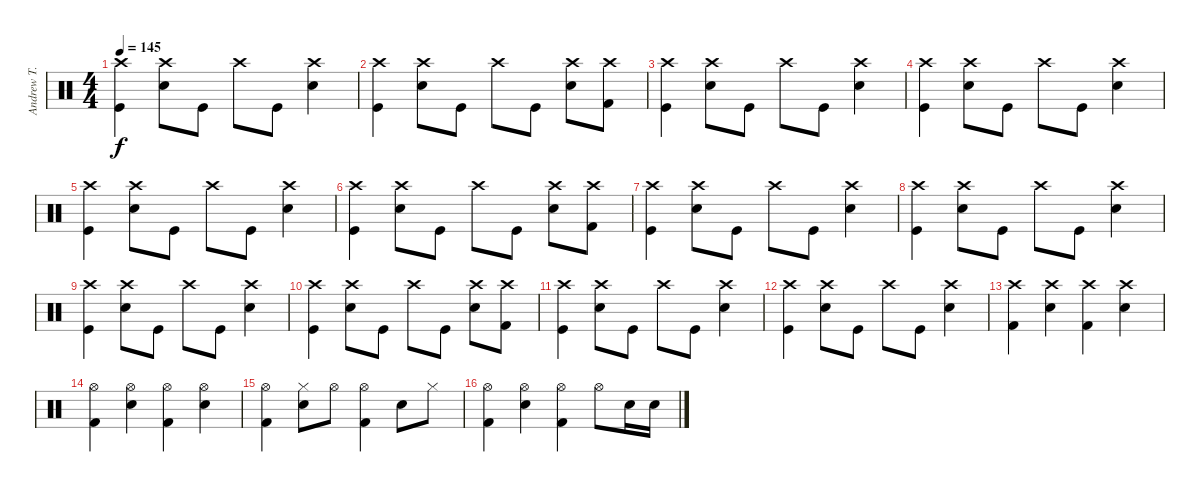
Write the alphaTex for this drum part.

\track ("Andrew T." "Andrew T.") {instrument percussion}
\staff {score}
\articulation defaults
\ts (4 4)
\tempo 145
\clef neutral
\ks c
("Crash high (hit)" "Kick (hit)").4{dy f} ("Crash high (hit)" "Snare (hit) 2").8 "Kick (hit)".8 "Crash high (hit)".8 "Kick (hit)".8 ("Crash high (hit)" "Snare (hit) 2").4 |
("Crash high (hit)" "Kick (hit)").4 ("Crash high (hit)" "Snare (hit) 2").8 "Kick (hit)".8 "Crash high (hit)".8 "Kick (hit)".8 ("Crash high (hit)" "Snare (hit) 2").8 ("Kick (hit) 2" "Crash high (hit)").8 |
("Crash high (hit)" "Kick (hit)").4 ("Crash high (hit)" "Snare (hit) 2").8 "Kick (hit)".8 "Crash high (hit)".8 "Kick (hit)".8 ("Crash high (hit)" "Snare (hit) 2").4 |
("Crash high (hit)" "Kick (hit)").4 ("Crash high (hit)" "Snare (hit) 2").8 "Kick (hit)".8 "Crash high (hit)".8 "Kick (hit)".8 ("Crash high (hit)" "Snare (hit) 2").4 |
("Crash high (hit)" "Kick (hit)").4 ("Crash high (hit)" "Snare (hit) 2").8 "Kick (hit)".8 "Crash high (hit)".8 "Kick (hit)".8 ("Crash high (hit)" "Snare (hit) 2").4 |
("Crash high (hit)" "Kick (hit)").4 ("Crash high (hit)" "Snare (hit) 2").8 "Kick (hit)".8 "Crash high (hit)".8 "Kick (hit)".8 ("Crash high (hit)" "Snare (hit) 2").8 ("Kick (hit) 2" "Crash high (hit)").8 |
("Crash high (hit)" "Kick (hit)").4 ("Crash high (hit)" "Snare (hit) 2").8 "Kick (hit)".8 "Crash high (hit)".8 "Kick (hit)".8 ("Crash high (hit)" "Snare (hit) 2").4 |
("Crash high (hit)" "Kick (hit)").4 ("Crash high (hit)" "Snare (hit) 2").8 "Kick (hit)".8 "Crash high (hit)".8 "Kick (hit)".8 ("Crash high (hit)" "Snare (hit) 2").4 |
("Crash high (hit)" "Kick (hit)").4 ("Crash high (hit)" "Snare (hit) 2").8 "Kick (hit)".8 "Crash high (hit)".8 "Kick (hit)".8 ("Crash high (hit)" "Snare (hit) 2").4 |
("Crash high (hit)" "Kick (hit)").4 ("Crash high (hit)" "Snare (hit) 2").8 "Kick (hit)".8 "Crash high (hit)".8 "Kick (hit)".8 ("Crash high (hit)" "Snare (hit) 2").8 ("Kick (hit) 2" "Crash high (hit)").8 |
("Crash high (hit)" "Kick (hit)").4 ("Crash high (hit)" "Snare (hit) 2").8 "Kick (hit)".8 "Crash high (hit)".8 "Kick (hit)".8 ("Crash high (hit)" "Snare (hit) 2").4 |
("Crash high (hit)" "Kick (hit)").4 ("Crash high (hit)" "Snare (hit) 2").8 "Kick (hit)".8 "Crash high (hit)".8 "Kick (hit)".8 ("Crash high (hit)" "Snare (hit) 2").4 |
("Crash high (hit)" "Kick (hit) 2").4 ("Crash high (hit)" "Electric Snare (hit)").4 ("Crash high (hit)" "Kick (hit) 2").4 ("Crash high (hit)" "Electric Snare (hit)").4 |
("Kick (hit) 2" "Hi-Hat (open)").4 ("Electric Snare (hit)" "Hi-Hat (open)").4 ("Kick (hit) 2" "Hi-Hat (open)").4 ("Electric Snare (hit)" "Hi-Hat (open)").4 |
("Hi-Hat (open)" "Kick (hit) 2").4 ("Hi-Hat (closed)" "Electric Snare (hit)").8 "Hi-Hat (open)".8 ("Kick (hit) 2" "Hi-Hat (open)").4 "Electric Snare (hit)".8 "Hi-Hat (closed)".8 |
("Hi-Hat (open)" "Kick (hit) 2").4 ("Hi-Hat (open)" "Electric Snare (hit)").4 ("Hi-Hat (open)" "Kick (hit) 2").4 "Hi-Hat (open)".8 "Electric Snare (hit)".16 "Electric Snare (hit)".16
